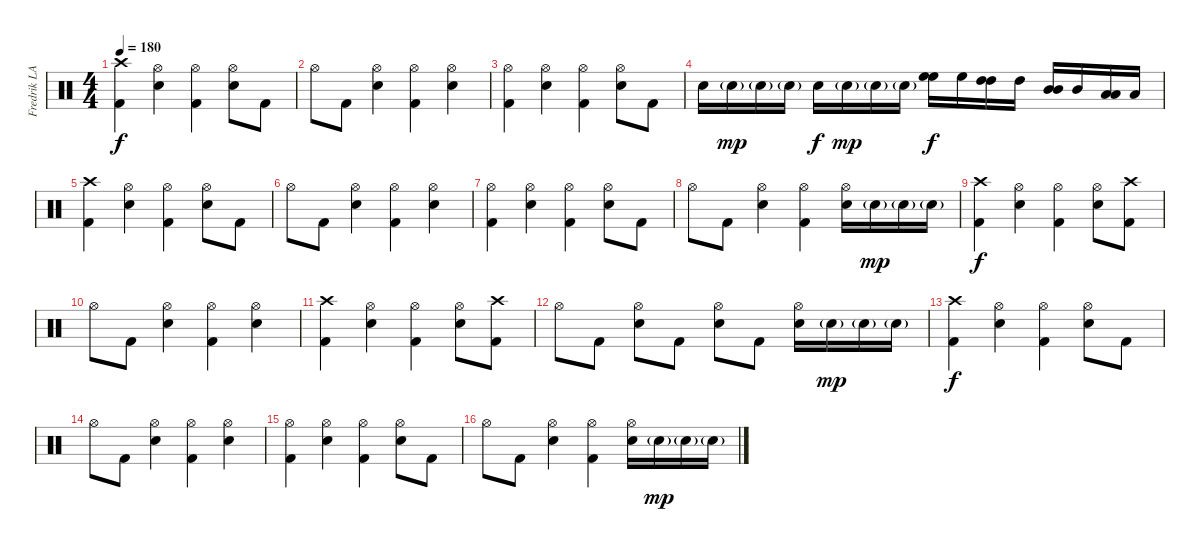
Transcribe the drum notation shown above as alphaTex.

\track ("Fredrik LARZON" "Fredrik LA") {instrument percussion}
\staff {score}
\articulation defaults
\ts (4 4)
\tempo 180
\clef neutral
\ks c
("Crash high (hit)" "Kick (hit) 2").4{dy f} ("Hi-Hat (open)" "Electric Snare (hit)").4 ("Hi-Hat (open)" "Kick (hit) 2").4 ("Hi-Hat (open)" "Electric Snare (hit)").8 "Kick (hit) 2".8 |
"Hi-Hat (open)".8 "Kick (hit) 2".8 ("Hi-Hat (open)" "Electric Snare (hit)").4 ("Hi-Hat (open)" "Kick (hit) 2").4 ("Hi-Hat (open)" "Electric Snare (hit)").4 |
("Hi-Hat (open)" "Kick (hit) 2").4 ("Hi-Hat (open)" "Electric Snare (hit)").4 ("Hi-Hat (open)" "Kick (hit) 2").4 ("Hi-Hat (open)" "Electric Snare (hit)").8 "Kick (hit) 2".8 |
"Electric Snare (hit)".16 "Electric Snare (hit)"{g}.16{dy mp} "Electric Snare (hit)"{g}.16 "Electric Snare (hit)"{g}.16 "Electric Snare (hit)".16{dy f} "Electric Snare (hit)"{g}.16{dy mp} "Electric Snare (hit)"{g}.16 "Electric Snare (hit)"{g}.16 ("High Floor Tom (hit)" "High Floor Tom (hit)").16{dy f} "High Floor Tom (hit)".16 ("High Tom (hit)" "High Tom (hit)").16 "High Tom (hit)".16 ("Mid Tom (hit)" "Mid Tom (hit)").16 "Mid Tom (hit)".16 ("Low Tom (hit)" "Low Tom (hit)").16 "Low Tom (hit)".16 |
("Crash high (hit)" "Kick (hit) 2").4 ("Hi-Hat (open)" "Electric Snare (hit)").4 ("Hi-Hat (open)" "Kick (hit) 2").4 ("Hi-Hat (open)" "Electric Snare (hit)").8 "Kick (hit) 2".8 |
"Hi-Hat (open)".8 "Kick (hit) 2".8 ("Hi-Hat (open)" "Electric Snare (hit)").4 ("Hi-Hat (open)" "Kick (hit) 2").4 ("Hi-Hat (open)" "Electric Snare (hit)").4 |
("Hi-Hat (open)" "Kick (hit) 2").4 ("Hi-Hat (open)" "Electric Snare (hit)").4 ("Hi-Hat (open)" "Kick (hit) 2").4 ("Hi-Hat (open)" "Electric Snare (hit)").8 "Kick (hit) 2".8 |
"Hi-Hat (open)".8 "Kick (hit) 2".8 ("Hi-Hat (open)" "Electric Snare (hit)").4 ("Hi-Hat (open)" "Kick (hit) 2").4 ("Hi-Hat (open)" "Electric Snare (hit)").16 "Electric Snare (hit)"{g}.16{dy mp} "Electric Snare (hit)"{g}.16 "Electric Snare (hit)"{g}.16 |
("Crash high (hit)" "Kick (hit) 2").4{dy f} ("Hi-Hat (open)" "Electric Snare (hit)").4 ("Hi-Hat (open)" "Kick (hit) 2").4 ("Hi-Hat (open)" "Electric Snare (hit)").8 ("Crash high (hit)" "Kick (hit) 2").8 |
"Hi-Hat (open)".8 "Kick (hit) 2".8 ("Hi-Hat (open)" "Electric Snare (hit)").4 ("Hi-Hat (open)" "Kick (hit) 2").4 ("Hi-Hat (open)" "Electric Snare (hit)").4 |
("Crash high (hit)" "Kick (hit) 2").4 ("Hi-Hat (open)" "Electric Snare (hit)").4 ("Hi-Hat (open)" "Kick (hit) 2").4 ("Hi-Hat (open)" "Electric Snare (hit)").8 ("Crash high (hit)" "Kick (hit) 2").8 |
"Hi-Hat (open)".8 "Kick (hit) 2".8 ("Hi-Hat (open)" "Electric Snare (hit)").8 "Kick (hit) 2".8 ("Hi-Hat (open)" "Electric Snare (hit)").8 "Kick (hit) 2".8 ("Hi-Hat (open)" "Electric Snare (hit)").16 "Electric Snare (hit)"{g}.16{dy mp} "Electric Snare (hit)"{g}.16 "Electric Snare (hit)"{g}.16 |
("Crash high (hit)" "Kick (hit) 2").4{dy f} ("Hi-Hat (open)" "Electric Snare (hit)").4 ("Hi-Hat (open)" "Kick (hit) 2").4 ("Hi-Hat (open)" "Electric Snare (hit)").8 "Kick (hit) 2".8 |
"Hi-Hat (open)".8 "Kick (hit) 2".8 ("Hi-Hat (open)" "Electric Snare (hit)").4 ("Hi-Hat (open)" "Kick (hit) 2").4 ("Hi-Hat (open)" "Electric Snare (hit)").4 |
("Hi-Hat (open)" "Kick (hit) 2").4 ("Hi-Hat (open)" "Electric Snare (hit)").4 ("Hi-Hat (open)" "Kick (hit) 2").4 ("Hi-Hat (open)" "Electric Snare (hit)").8 "Kick (hit) 2".8 |
"Hi-Hat (open)".8 "Kick (hit) 2".8 ("Hi-Hat (open)" "Electric Snare (hit)").4 ("Hi-Hat (open)" "Kick (hit) 2").4 ("Hi-Hat (open)" "Electric Snare (hit)").16 "Electric Snare (hit)"{g}.16{dy mp} "Electric Snare (hit)"{g}.16 "Electric Snare (hit)"{g}.16
